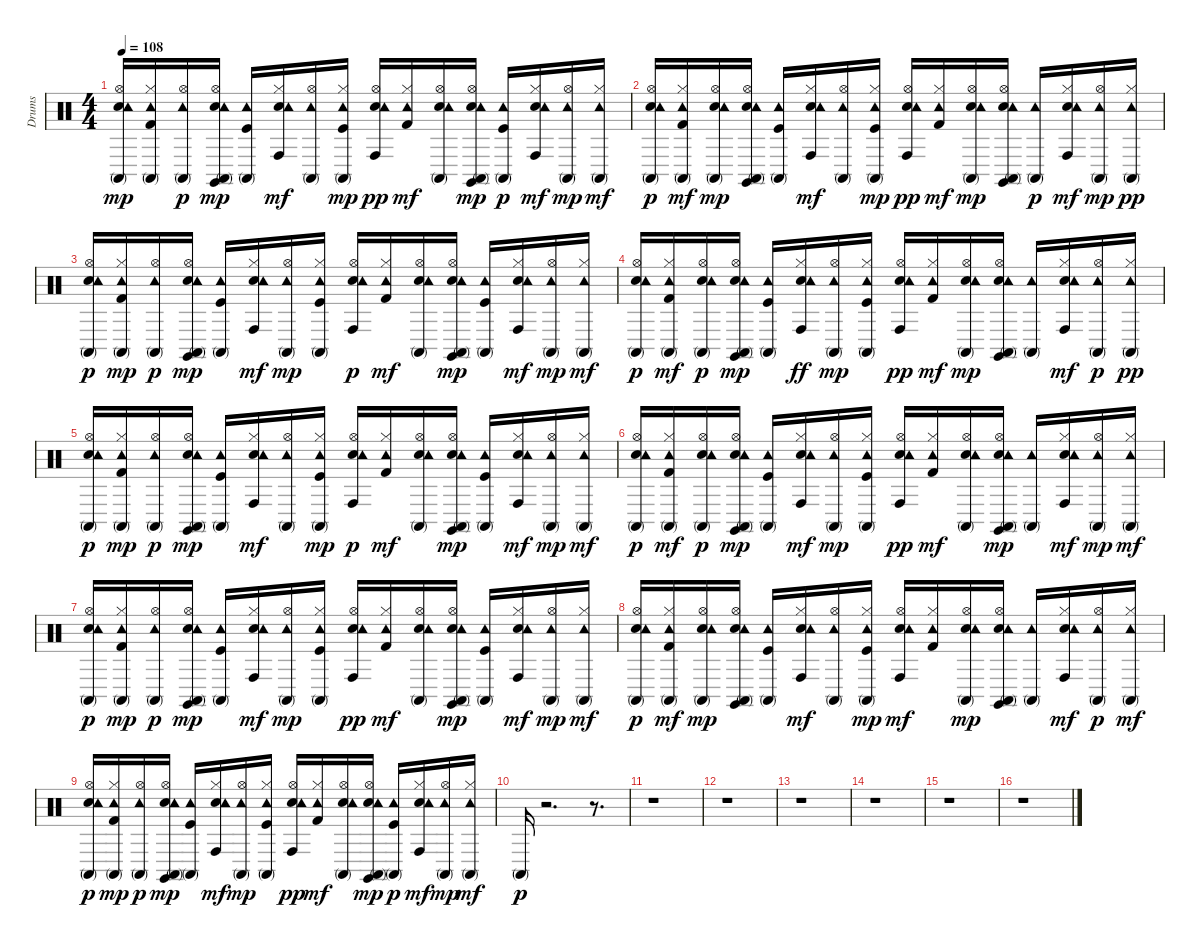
\track ("Drums" "Drums") {instrument percussion}
\staff {score}
\articulation defaults
\ts (4 4)
\tempo 108
\clef neutral
\ks c
("Snare (hit) 2" "Hi-Hat (open)" "Tambourine (hit)" "Conga high (mute)").16{dy mp} ("Kick (hit) 2" "Hi-Hat (closed)" "Tambourine (hit)" "Conga high (mute)").16 ("Hi-Hat (open)" "Tambourine (hit)" "Conga high (mute)").16{dy p} ("Snare (hit) 2" "Hi-Hat (open)" "Tambourine (hit)" "Conga high (mute)" "Claves (hit)").16{dy mp} ("Kick (hit)" "Tambourine (hit)" "Conga high (mute)").16 ("Snare (hit) 2" "Hi-Hat (closed)" "Tambourine (hit)" "Conga high (hit)").16{dy mf} ("Hi-Hat (open)" "Tambourine (hit)" "Conga high (mute)").16 ("Kick (hit)" "Hi-Hat (closed)" "Tambourine (hit)" "Conga high (mute)").16{dy mp} ("Snare (hit) 2" "Hi-Hat (open)" "Tambourine (hit)" "Conga high (hit)").16{dy pp} ("Kick (hit) 2" "Hi-Hat (closed)" "Tambourine (hit)").16{dy mf} ("Snare (hit) 2" "Hi-Hat (open)" "Tambourine (hit)" "Conga high (mute)").16 ("Snare (hit) 2" "Hi-Hat (open)" "Tambourine (hit)" "Conga high (mute)" "Claves (hit)").16{dy mp} ("Kick (hit)" "Tambourine (hit)" "Conga high (mute)").16{dy p} ("Snare (hit) 2" "Hi-Hat (closed)" "Tambourine (hit)" "Conga high (hit)").16{dy mf} ("Hi-Hat (open)" "Tambourine (hit)" "Conga high (mute)").16{dy mp} ("Hi-Hat (closed)" "Tambourine (hit)" "Conga high (mute)").16{dy mf} |
("Snare (hit) 2" "Hi-Hat (open)" "Tambourine (hit)" "Conga high (mute)").16{dy p} ("Kick (hit) 2" "Hi-Hat (closed)" "Tambourine (hit)" "Conga high (mute)").16{dy mf} ("Snare (hit) 2" "Hi-Hat (open)" "Tambourine (hit)" "Conga high (mute)").16{dy mp} ("Snare (hit) 2" "Hi-Hat (open)" "Tambourine (hit)" "Conga high (mute)" "Claves (hit)").16 ("Kick (hit)" "Tambourine (hit)" "Conga high (mute)").16 ("Snare (hit) 2" "Hi-Hat (closed)" "Tambourine (hit)" "Conga high (hit)").16{dy mf} ("Hi-Hat (open)" "Tambourine (hit)" "Conga high (mute)").16 ("Kick (hit)" "Hi-Hat (closed)" "Tambourine (hit)" "Conga high (mute)").16{dy mp} ("Snare (hit) 2" "Hi-Hat (open)" "Tambourine (hit)" "Conga high (hit)").16{dy pp} ("Kick (hit) 2" "Hi-Hat (closed)" "Tambourine (hit)").16{dy mf} ("Snare (hit) 2" "Hi-Hat (open)" "Tambourine (hit)" "Conga high (mute)").16{dy mp} ("Snare (hit) 2" "Hi-Hat (open)" "Tambourine (hit)" "Conga high (mute)" "Claves (hit)").16 ("Tambourine (hit)" "Conga high (mute)").16{dy p} ("Snare (hit) 2" "Hi-Hat (closed)" "Tambourine (hit)" "Conga high (hit)").16{dy mf} ("Hi-Hat (open)" "Tambourine (hit)" "Conga high (mute)").16{dy mp} ("Hi-Hat (closed)" "Tambourine (hit)" "Conga high (mute)").16{dy pp} |
("Snare (hit) 2" "Hi-Hat (open)" "Tambourine (hit)" "Conga high (mute)").16{dy p} ("Kick (hit) 2" "Hi-Hat (closed)" "Tambourine (hit)" "Conga high (mute)").16{dy mp} ("Hi-Hat (open)" "Tambourine (hit)" "Conga high (mute)").16{dy p} ("Snare (hit) 2" "Hi-Hat (open)" "Tambourine (hit)" "Conga high (mute)" "Claves (hit)").16{dy mp} ("Kick (hit)" "Tambourine (hit)" "Conga high (mute)").16 ("Snare (hit) 2" "Hi-Hat (closed)" "Tambourine (hit)" "Conga high (hit)").16{dy mf} ("Hi-Hat (open)" "Tambourine (hit)" "Conga high (mute)").16{dy mp} ("Kick (hit)" "Hi-Hat (closed)" "Tambourine (hit)" "Conga high (mute)").16 ("Snare (hit) 2" "Hi-Hat (open)" "Tambourine (hit)" "Conga high (hit)").16{dy p} ("Kick (hit) 2" "Hi-Hat (closed)" "Tambourine (hit)").16{dy mf} ("Snare (hit) 2" "Hi-Hat (open)" "Tambourine (hit)" "Conga high (mute)").16 ("Snare (hit) 2" "Hi-Hat (open)" "Tambourine (hit)" "Conga high (mute)" "Claves (hit)").16{dy mp} ("Kick (hit)" "Tambourine (hit)" "Conga high (mute)").16 ("Snare (hit) 2" "Hi-Hat (closed)" "Tambourine (hit)" "Conga high (hit)").16{dy mf} ("Hi-Hat (open)" "Tambourine (hit)" "Conga high (mute)").16{dy mp} ("Hi-Hat (closed)" "Tambourine (hit)" "Conga high (mute)").16{dy mf} |
("Snare (hit) 2" "Hi-Hat (open)" "Tambourine (hit)" "Conga high (mute)").16{dy p} ("Kick (hit) 2" "Hi-Hat (closed)" "Tambourine (hit)" "Conga high (mute)").16{dy mf} ("Snare (hit) 2" "Hi-Hat (open)" "Tambourine (hit)" "Conga high (mute)").16{dy p} ("Snare (hit) 2" "Hi-Hat (open)" "Tambourine (hit)" "Conga high (mute)" "Claves (hit)").16{dy mp} ("Kick (hit)" "Tambourine (hit)" "Conga high (mute)").16 ("Snare (hit) 2" "Hi-Hat (closed)" "Tambourine (hit)" "Conga high (hit)").16{dy ff} ("Hi-Hat (open)" "Tambourine (hit)" "Conga high (mute)").16{dy mp} ("Kick (hit)" "Hi-Hat (closed)" "Tambourine (hit)" "Conga high (mute)").16 ("Snare (hit) 2" "Hi-Hat (open)" "Tambourine (hit)" "Conga high (hit)").16{dy pp} ("Kick (hit) 2" "Hi-Hat (closed)" "Tambourine (hit)").16{dy mf} ("Snare (hit) 2" "Hi-Hat (open)" "Tambourine (hit)" "Conga high (mute)").16{dy mp} ("Snare (hit) 2" "Hi-Hat (open)" "Tambourine (hit)" "Conga high (mute)" "Claves (hit)").16 ("Tambourine (hit)" "Conga high (mute)").16 ("Snare (hit) 2" "Hi-Hat (closed)" "Tambourine (hit)" "Conga high (hit)").16{dy mf} ("Hi-Hat (open)" "Tambourine (hit)" "Conga high (mute)").16{dy p} ("Hi-Hat (closed)" "Tambourine (hit)" "Conga high (mute)").16{dy pp} |
("Snare (hit) 2" "Hi-Hat (open)" "Tambourine (hit)" "Conga high (mute)").16{dy p} ("Kick (hit) 2" "Hi-Hat (closed)" "Tambourine (hit)" "Conga high (mute)").16{dy mp} ("Hi-Hat (open)" "Tambourine (hit)" "Conga high (mute)").16{dy p} ("Snare (hit) 2" "Hi-Hat (open)" "Tambourine (hit)" "Conga high (mute)" "Claves (hit)").16{dy mp} ("Kick (hit)" "Tambourine (hit)" "Conga high (mute)").16 ("Snare (hit) 2" "Hi-Hat (closed)" "Tambourine (hit)" "Conga high (hit)").16{dy mf} ("Hi-Hat (open)" "Tambourine (hit)" "Conga high (mute)").16 ("Kick (hit)" "Hi-Hat (closed)" "Tambourine (hit)" "Conga high (mute)").16{dy mp} ("Snare (hit) 2" "Hi-Hat (open)" "Tambourine (hit)" "Conga high (hit)").16{dy p} ("Kick (hit) 2" "Hi-Hat (closed)" "Tambourine (hit)").16{dy mf} ("Snare (hit) 2" "Hi-Hat (open)" "Tambourine (hit)" "Conga high (mute)").16 ("Snare (hit) 2" "Hi-Hat (open)" "Tambourine (hit)" "Conga high (mute)" "Claves (hit)").16{dy mp} ("Kick (hit)" "Tambourine (hit)" "Conga high (mute)").16 ("Snare (hit) 2" "Hi-Hat (closed)" "Tambourine (hit)" "Conga high (hit)").16{dy mf} ("Hi-Hat (open)" "Tambourine (hit)" "Conga high (mute)").16{dy mp} ("Hi-Hat (closed)" "Tambourine (hit)" "Conga high (mute)").16{dy mf} |
("Snare (hit) 2" "Hi-Hat (open)" "Tambourine (hit)" "Conga high (mute)").16{dy p} ("Kick (hit) 2" "Hi-Hat (closed)" "Tambourine (hit)" "Conga high (mute)").16{dy mf} ("Snare (hit) 2" "Hi-Hat (open)" "Tambourine (hit)" "Conga high (mute)").16{dy p} ("Snare (hit) 2" "Hi-Hat (open)" "Tambourine (hit)" "Conga high (mute)" "Claves (hit)").16{dy mp} ("Kick (hit)" "Tambourine (hit)" "Conga high (mute)").16 ("Snare (hit) 2" "Hi-Hat (closed)" "Tambourine (hit)" "Conga high (hit)").16{dy mf} ("Hi-Hat (open)" "Tambourine (hit)" "Conga high (mute)").16{dy mp} ("Kick (hit)" "Hi-Hat (closed)" "Tambourine (hit)" "Conga high (mute)").16 ("Snare (hit) 2" "Hi-Hat (open)" "Tambourine (hit)" "Conga high (hit)").16{dy pp} ("Kick (hit) 2" "Hi-Hat (closed)" "Tambourine (hit)").16{dy mf} ("Snare (hit) 2" "Hi-Hat (open)" "Tambourine (hit)" "Conga high (mute)").16 ("Snare (hit) 2" "Hi-Hat (open)" "Tambourine (hit)" "Conga high (mute)" "Claves (hit)").16{dy mp} ("Tambourine (hit)" "Conga high (mute)").16 ("Snare (hit) 2" "Hi-Hat (closed)" "Tambourine (hit)" "Conga high (hit)").16{dy mf} ("Hi-Hat (open)" "Tambourine (hit)" "Conga high (mute)").16{dy mp} ("Hi-Hat (closed)" "Tambourine (hit)" "Conga high (mute)").16{dy mf} |
("Snare (hit) 2" "Hi-Hat (open)" "Tambourine (hit)" "Conga high (mute)").16{dy p} ("Kick (hit) 2" "Hi-Hat (closed)" "Tambourine (hit)" "Conga high (mute)").16{dy mp} ("Hi-Hat (open)" "Tambourine (hit)" "Conga high (mute)").16{dy p} ("Snare (hit) 2" "Hi-Hat (open)" "Tambourine (hit)" "Conga high (mute)" "Claves (hit)").16{dy mp} ("Kick (hit)" "Tambourine (hit)" "Conga high (mute)").16 ("Snare (hit) 2" "Hi-Hat (closed)" "Tambourine (hit)" "Conga high (hit)").16{dy mf} ("Hi-Hat (open)" "Tambourine (hit)" "Conga high (mute)").16{dy mp} ("Kick (hit)" "Hi-Hat (closed)" "Tambourine (hit)" "Conga high (mute)").16 ("Snare (hit) 2" "Hi-Hat (open)" "Tambourine (hit)" "Conga high (hit)").16{dy pp} ("Kick (hit) 2" "Hi-Hat (closed)" "Tambourine (hit)").16{dy mf} ("Snare (hit) 2" "Hi-Hat (open)" "Tambourine (hit)" "Conga high (mute)").16 ("Snare (hit) 2" "Hi-Hat (open)" "Tambourine (hit)" "Conga high (mute)" "Claves (hit)").16{dy mp} ("Kick (hit)" "Tambourine (hit)" "Conga high (mute)").16 ("Snare (hit) 2" "Hi-Hat (closed)" "Tambourine (hit)" "Conga high (hit)").16{dy mf} ("Hi-Hat (open)" "Tambourine (hit)" "Conga high (mute)").16{dy mp} ("Hi-Hat (closed)" "Tambourine (hit)" "Conga high (mute)").16{dy mf} |
("Snare (hit) 2" "Hi-Hat (open)" "Tambourine (hit)" "Conga high (mute)").16{dy p} ("Kick (hit) 2" "Hi-Hat (closed)" "Tambourine (hit)" "Conga high (mute)").16{dy mf} ("Snare (hit) 2" "Hi-Hat (open)" "Tambourine (hit)" "Conga high (mute)").16{dy mp} ("Snare (hit) 2" "Hi-Hat (open)" "Tambourine (hit)" "Conga high (mute)" "Claves (hit)").16 ("Kick (hit)" "Tambourine (hit)" "Conga high (mute)").16 ("Snare (hit) 2" "Hi-Hat (closed)" "Tambourine (hit)" "Conga high (hit)").16{dy mf} ("Hi-Hat (open)" "Tambourine (hit)" "Conga high (mute)").16 ("Kick (hit)" "Hi-Hat (closed)" "Tambourine (hit)" "Conga high (mute)").16{dy mp} ("Snare (hit) 2" "Hi-Hat (open)" "Tambourine (hit)" "Conga high (hit)").16{dy mf} ("Kick (hit) 2" "Hi-Hat (closed)" "Tambourine (hit)").16 ("Snare (hit) 2" "Hi-Hat (open)" "Tambourine (hit)" "Conga high (mute)").16{dy mp} ("Snare (hit) 2" "Hi-Hat (open)" "Tambourine (hit)" "Conga high (mute)" "Claves (hit)").16 ("Tambourine (hit)" "Conga high (mute)").16 ("Snare (hit) 2" "Hi-Hat (closed)" "Tambourine (hit)" "Conga high (hit)").16{dy mf} ("Hi-Hat (open)" "Tambourine (hit)" "Conga high (mute)").16{dy p} ("Hi-Hat (closed)" "Tambourine (hit)" "Conga high (mute)").16{dy mf} |
("Snare (hit) 2" "Hi-Hat (open)" "Tambourine (hit)" "Conga high (mute)").16{dy p} ("Kick (hit) 2" "Hi-Hat (closed)" "Tambourine (hit)" "Conga high (mute)").16{dy mp} ("Hi-Hat (open)" "Tambourine (hit)" "Conga high (mute)").16{dy p} ("Snare (hit) 2" "Hi-Hat (open)" "Tambourine (hit)" "Conga high (mute)" "Claves (hit)").16{dy mp} ("Kick (hit)" "Tambourine (hit)" "Conga high (mute)").16 ("Snare (hit) 2" "Hi-Hat (closed)" "Tambourine (hit)" "Conga high (hit)").16{dy mf} ("Hi-Hat (open)" "Tambourine (hit)" "Conga high (mute)").16{dy mp} ("Kick (hit)" "Hi-Hat (closed)" "Tambourine (hit)" "Conga high (mute)").16 ("Snare (hit) 2" "Hi-Hat (open)" "Tambourine (hit)" "Conga high (hit)").16{dy pp} ("Kick (hit) 2" "Hi-Hat (closed)" "Tambourine (hit)").16{dy mf} ("Snare (hit) 2" "Hi-Hat (open)" "Tambourine (hit)" "Conga high (mute)").16 ("Snare (hit) 2" "Hi-Hat (open)" "Tambourine (hit)" "Conga high (mute)" "Claves (hit)").16{dy mp} ("Kick (hit)" "Tambourine (hit)" "Conga high (mute)").16{dy p} ("Snare (hit) 2" "Hi-Hat (closed)" "Tambourine (hit)" "Conga high (hit)").16{dy mf} ("Hi-Hat (open)" "Tambourine (hit)" "Conga high (mute)").16{dy mp} ("Hi-Hat (closed)" "Tambourine (hit)" "Conga high (mute)").16{dy mf} |
"Conga high (mute)".16{dy p} r.2{d} r.8{d} |
r.1 |
r.1 |
r.1 |
r.1 |
r.1 |
r.1
